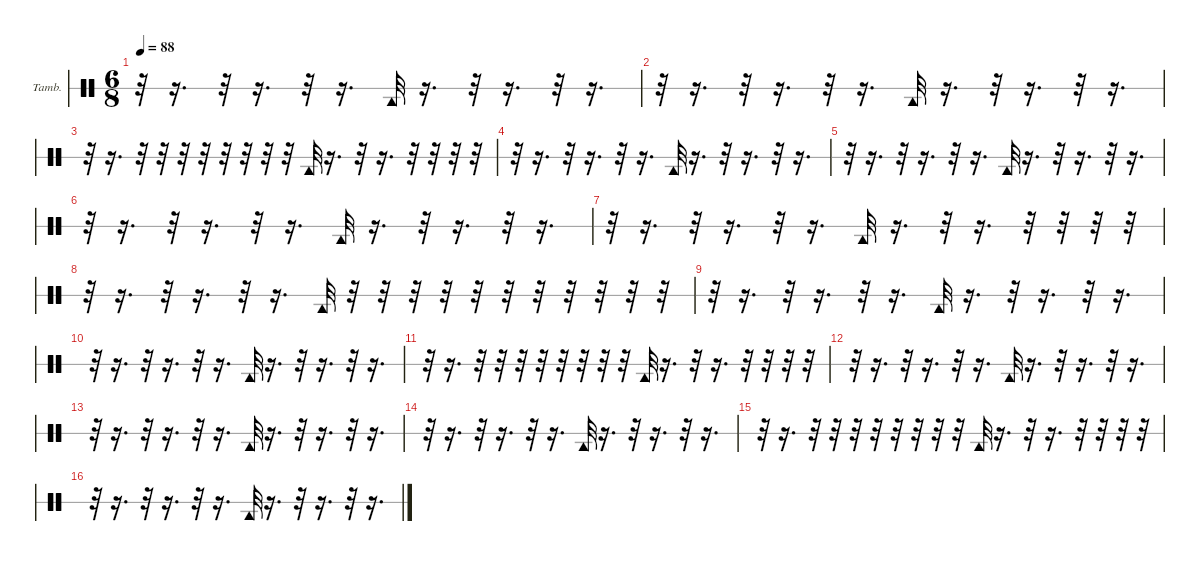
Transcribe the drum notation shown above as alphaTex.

\hideDynamics
\bracketExtendMode nobrackets
\firstSystemTrackNameOrientation horizontal
\otherSystemsTrackNameOrientation horizontal
\track ("Tambourine" "Tamb.") {instrument percussion}
\staff {score 1}
\articulation defaults
\ts (6 8)
\tempo 88
\clef neutral
\ks c
r.32{dy ff} r.16{d} r.32 r.16{d} r.32 r.16{d} "Tambourine (hit)".32 r.16{d} r.32 r.16{d} r.32 r.16{d} |
r.32 r.16{d} r.32 r.16{d} r.32 r.16{d} "Tambourine (hit)".32 r.16{d} r.32 r.16{d} r.32 r.16{d} |
r.32 r.16{d} r.32 r.32 r.32 r.32 r.32 r.32 r.32 r.32 "Tambourine (hit)".32 r.16{d} r.32 r.16{d} r.32 r.32 r.32 r.32 |
r.32 r.16{d} r.32 r.16{d} r.32 r.16{d} "Tambourine (hit)".32 r.16{d} r.32 r.16{d} r.32 r.16{d} |
r.32 r.16{d} r.32 r.16{d} r.32 r.16{d} "Tambourine (hit)".32 r.16{d} r.32 r.16{d} r.32 r.16{d} |
r.32 r.16{d} r.32 r.16{d} r.32 r.16{d} "Tambourine (hit)".32 r.16{d} r.32 r.16{d} r.32 r.16{d} |
r.32 r.16{d} r.32 r.16{d} r.32 r.16{d} "Tambourine (hit)".32 r.16{d} r.32 r.16{d} r.32 r.32 r.32 r.32 |
r.32 r.16{d} r.32 r.16{d} r.32 r.16{d} "Tambourine (hit)".32 r.32 r.32 r.32 r.32 r.32 r.32 r.32 r.32 r.32 r.32 r.32 |
r.32 r.16{d} r.32 r.16{d} r.32 r.16{d} "Tambourine (hit)".32 r.16{d} r.32 r.16{d} r.32 r.16{d} |
r.32 r.16{d} r.32 r.16{d} r.32 r.16{d} "Tambourine (hit)".32 r.16{d} r.32 r.16{d} r.32 r.16{d} |
r.32 r.16{d} r.32 r.32 r.32 r.32 r.32 r.32 r.32 r.32 "Tambourine (hit)".32 r.16{d} r.32 r.16{d} r.32 r.32 r.32 r.32 |
r.32 r.16{d} r.32 r.16{d} r.32 r.16{d} "Tambourine (hit)".32 r.16{d} r.32 r.16{d} r.32 r.16{d} |
r.32 r.16{d} r.32 r.16{d} r.32 r.16{d} "Tambourine (hit)".32 r.16{d} r.32 r.16{d} r.32 r.16{d} |
r.32 r.16{d} r.32 r.16{d} r.32 r.16{d} "Tambourine (hit)".32 r.16{d} r.32 r.16{d} r.32 r.16{d} |
r.32 r.16{d} r.32 r.32 r.32 r.32 r.32 r.32 r.32 r.32 "Tambourine (hit)".32 r.16{d} r.32 r.16{d} r.32 r.32 r.32 r.32 |
r.32 r.16{d} r.32 r.16{d} r.32 r.16{d} "Tambourine (hit)".32 r.16{d} r.32 r.16{d} r.32 r.16{d}
